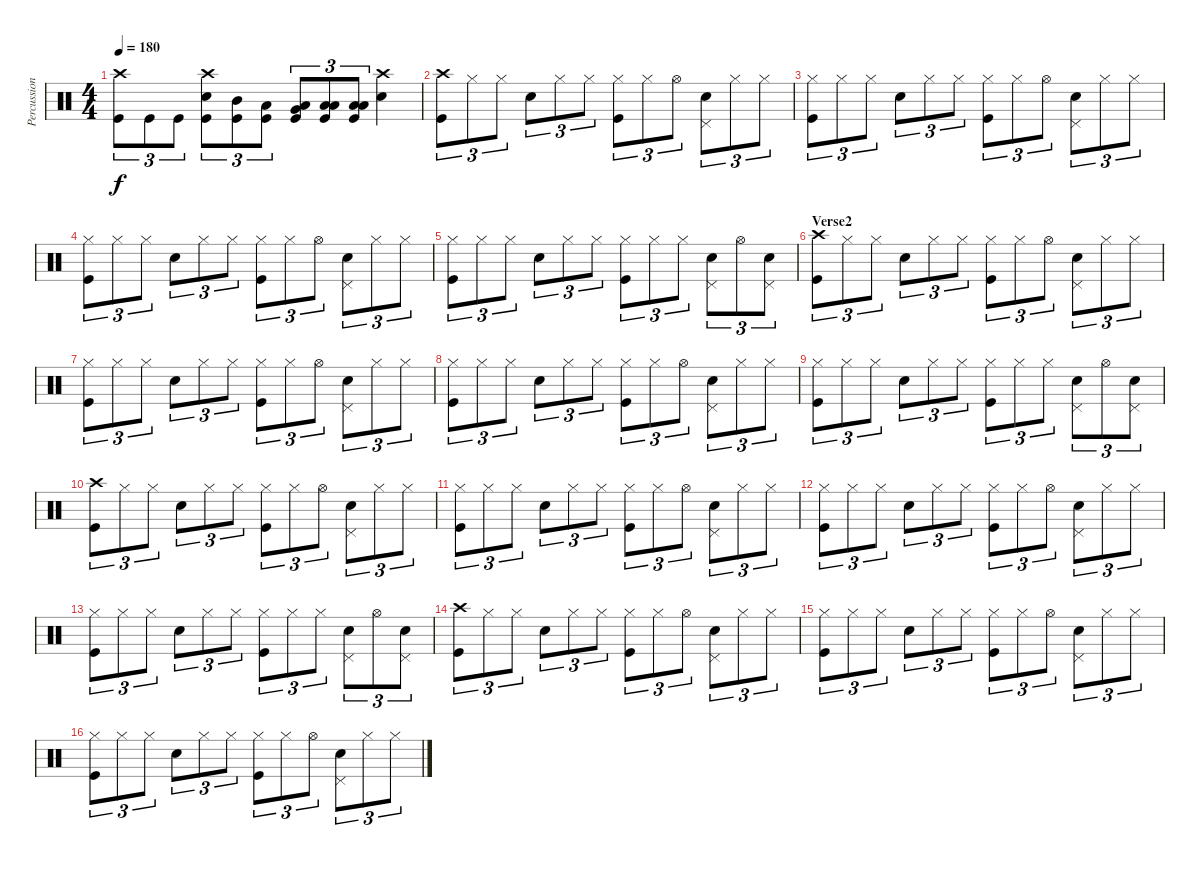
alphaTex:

\track ("Percussions" "Percussion") {instrument percussion}
\staff {score}
\articulation defaults
\ts (4 4)
\tempo 180
\clef neutral
\ks c
("Crash high (hit)" "Kick (hit)").8{tu (3 2) dy f} "Kick (hit)".8{tu (3 2)} "Kick (hit)".8{tu (3 2)} ("Crash high (hit)" "Electric Snare (hit)" "Kick (hit)").8{tu (3 2)} ("Mid Tom (hit)" "Kick (hit)").8{tu (3 2)} ("Low Tom (hit)" "Kick (hit)").8{tu (3 2)} ("Very Low Tom (hit)" "Low Floor Tom (hit)" "Kick (hit)").8{tu (3 2)} ("Low Floor Tom (hit)" "Low Floor Tom (hit)" "Kick (hit)").8{tu (3 2)} ("Low Floor Tom (hit)" "Low Floor Tom (hit)" "Kick (hit)").8{tu (3 2)} ("Crash high (hit)" "Electric Snare (hit)").4 |
("Crash high (hit)" "Kick (hit)").8{tu (3 2)} "Hi-Hat (closed)".8{tu (3 2)} "Hi-Hat (closed)".8{tu (3 2)} "Electric Snare (hit)".8{tu (3 2)} "Hi-Hat (closed)".8{tu (3 2)} "Hi-Hat (closed)".8{tu (3 2)} ("Hi-Hat (closed)" "Kick (hit)").8{tu (3 2)} "Hi-Hat (closed)".8{tu (3 2)} "Hi-Hat (open)".8{tu (3 2)} ("Pedal Hi-Hat (hit)" "Electric Snare (hit)").8{tu (3 2)} "Hi-Hat (closed)".8{tu (3 2)} "Hi-Hat (closed)".8{tu (3 2)} |
("Hi-Hat (closed)" "Kick (hit)").8{tu (3 2)} "Hi-Hat (closed)".8{tu (3 2)} "Hi-Hat (closed)".8{tu (3 2)} "Electric Snare (hit)".8{tu (3 2)} "Hi-Hat (closed)".8{tu (3 2)} "Hi-Hat (closed)".8{tu (3 2)} ("Hi-Hat (closed)" "Kick (hit)").8{tu (3 2)} "Hi-Hat (closed)".8{tu (3 2)} "Hi-Hat (open)".8{tu (3 2)} ("Pedal Hi-Hat (hit)" "Electric Snare (hit)").8{tu (3 2)} "Hi-Hat (closed)".8{tu (3 2)} "Hi-Hat (closed)".8{tu (3 2)} |
("Hi-Hat (closed)" "Kick (hit)").8{tu (3 2)} "Hi-Hat (closed)".8{tu (3 2)} "Hi-Hat (closed)".8{tu (3 2)} "Electric Snare (hit)".8{tu (3 2)} "Hi-Hat (closed)".8{tu (3 2)} "Hi-Hat (closed)".8{tu (3 2)} ("Hi-Hat (closed)" "Kick (hit)").8{tu (3 2)} "Hi-Hat (closed)".8{tu (3 2)} "Hi-Hat (open)".8{tu (3 2)} ("Pedal Hi-Hat (hit)" "Electric Snare (hit)").8{tu (3 2)} "Hi-Hat (closed)".8{tu (3 2)} "Hi-Hat (closed)".8{tu (3 2)} |
("Hi-Hat (closed)" "Kick (hit)").8{tu (3 2)} "Hi-Hat (closed)".8{tu (3 2)} "Hi-Hat (closed)".8{tu (3 2)} "Electric Snare (hit)".8{tu (3 2)} "Hi-Hat (closed)".8{tu (3 2)} "Hi-Hat (closed)".8{tu (3 2)} ("Hi-Hat (closed)" "Kick (hit)").8{tu (3 2)} "Hi-Hat (closed)".8{tu (3 2)} "Hi-Hat (closed)".8{tu (3 2)} ("Pedal Hi-Hat (hit)" "Electric Snare (hit)").8{tu (3 2)} "Hi-Hat (open)".8{tu (3 2)} ("Pedal Hi-Hat (hit)" "Electric Snare (hit)").8{tu (3 2)} |
\section ("" "Verse2")
("Crash high (hit)" "Kick (hit)").8{tu (3 2)} "Hi-Hat (closed)".8{tu (3 2)} "Hi-Hat (closed)".8{tu (3 2)} "Electric Snare (hit)".8{tu (3 2)} "Hi-Hat (closed)".8{tu (3 2)} "Hi-Hat (closed)".8{tu (3 2)} ("Hi-Hat (closed)" "Kick (hit)").8{tu (3 2)} "Hi-Hat (closed)".8{tu (3 2)} "Hi-Hat (open)".8{tu (3 2)} ("Pedal Hi-Hat (hit)" "Electric Snare (hit)").8{tu (3 2)} "Hi-Hat (closed)".8{tu (3 2)} "Hi-Hat (closed)".8{tu (3 2)} |
("Hi-Hat (closed)" "Kick (hit)").8{tu (3 2)} "Hi-Hat (closed)".8{tu (3 2)} "Hi-Hat (closed)".8{tu (3 2)} "Electric Snare (hit)".8{tu (3 2)} "Hi-Hat (closed)".8{tu (3 2)} "Hi-Hat (closed)".8{tu (3 2)} ("Hi-Hat (closed)" "Kick (hit)").8{tu (3 2)} "Hi-Hat (closed)".8{tu (3 2)} "Hi-Hat (open)".8{tu (3 2)} ("Pedal Hi-Hat (hit)" "Electric Snare (hit)").8{tu (3 2)} "Hi-Hat (closed)".8{tu (3 2)} "Hi-Hat (closed)".8{tu (3 2)} |
("Hi-Hat (closed)" "Kick (hit)").8{tu (3 2)} "Hi-Hat (closed)".8{tu (3 2)} "Hi-Hat (closed)".8{tu (3 2)} "Electric Snare (hit)".8{tu (3 2)} "Hi-Hat (closed)".8{tu (3 2)} "Hi-Hat (closed)".8{tu (3 2)} ("Hi-Hat (closed)" "Kick (hit)").8{tu (3 2)} "Hi-Hat (closed)".8{tu (3 2)} "Hi-Hat (open)".8{tu (3 2)} ("Pedal Hi-Hat (hit)" "Electric Snare (hit)").8{tu (3 2)} "Hi-Hat (closed)".8{tu (3 2)} "Hi-Hat (closed)".8{tu (3 2)} |
("Hi-Hat (closed)" "Kick (hit)").8{tu (3 2)} "Hi-Hat (closed)".8{tu (3 2)} "Hi-Hat (closed)".8{tu (3 2)} "Electric Snare (hit)".8{tu (3 2)} "Hi-Hat (closed)".8{tu (3 2)} "Hi-Hat (closed)".8{tu (3 2)} ("Hi-Hat (closed)" "Kick (hit)").8{tu (3 2)} "Hi-Hat (closed)".8{tu (3 2)} "Hi-Hat (closed)".8{tu (3 2)} ("Pedal Hi-Hat (hit)" "Electric Snare (hit)").8{tu (3 2)} "Hi-Hat (open)".8{tu (3 2)} ("Pedal Hi-Hat (hit)" "Electric Snare (hit)").8{tu (3 2)} |
("Crash high (hit)" "Kick (hit)").8{tu (3 2)} "Hi-Hat (closed)".8{tu (3 2)} "Hi-Hat (closed)".8{tu (3 2)} "Electric Snare (hit)".8{tu (3 2)} "Hi-Hat (closed)".8{tu (3 2)} "Hi-Hat (closed)".8{tu (3 2)} ("Hi-Hat (closed)" "Kick (hit)").8{tu (3 2)} "Hi-Hat (closed)".8{tu (3 2)} "Hi-Hat (open)".8{tu (3 2)} ("Pedal Hi-Hat (hit)" "Electric Snare (hit)").8{tu (3 2)} "Hi-Hat (closed)".8{tu (3 2)} "Hi-Hat (closed)".8{tu (3 2)} |
("Hi-Hat (closed)" "Kick (hit)").8{tu (3 2)} "Hi-Hat (closed)".8{tu (3 2)} "Hi-Hat (closed)".8{tu (3 2)} "Electric Snare (hit)".8{tu (3 2)} "Hi-Hat (closed)".8{tu (3 2)} "Hi-Hat (closed)".8{tu (3 2)} ("Hi-Hat (closed)" "Kick (hit)").8{tu (3 2)} "Hi-Hat (closed)".8{tu (3 2)} "Hi-Hat (open)".8{tu (3 2)} ("Pedal Hi-Hat (hit)" "Electric Snare (hit)").8{tu (3 2)} "Hi-Hat (closed)".8{tu (3 2)} "Hi-Hat (closed)".8{tu (3 2)} |
("Hi-Hat (closed)" "Kick (hit)").8{tu (3 2)} "Hi-Hat (closed)".8{tu (3 2)} "Hi-Hat (closed)".8{tu (3 2)} "Electric Snare (hit)".8{tu (3 2)} "Hi-Hat (closed)".8{tu (3 2)} "Hi-Hat (closed)".8{tu (3 2)} ("Hi-Hat (closed)" "Kick (hit)").8{tu (3 2)} "Hi-Hat (closed)".8{tu (3 2)} "Hi-Hat (open)".8{tu (3 2)} ("Pedal Hi-Hat (hit)" "Electric Snare (hit)").8{tu (3 2)} "Hi-Hat (closed)".8{tu (3 2)} "Hi-Hat (closed)".8{tu (3 2)} |
("Hi-Hat (closed)" "Kick (hit)").8{tu (3 2)} "Hi-Hat (closed)".8{tu (3 2)} "Hi-Hat (closed)".8{tu (3 2)} "Electric Snare (hit)".8{tu (3 2)} "Hi-Hat (closed)".8{tu (3 2)} "Hi-Hat (closed)".8{tu (3 2)} ("Hi-Hat (closed)" "Kick (hit)").8{tu (3 2)} "Hi-Hat (closed)".8{tu (3 2)} "Hi-Hat (closed)".8{tu (3 2)} ("Pedal Hi-Hat (hit)" "Electric Snare (hit)").8{tu (3 2)} "Hi-Hat (open)".8{tu (3 2)} ("Pedal Hi-Hat (hit)" "Electric Snare (hit)").8{tu (3 2)} |
("Crash high (hit)" "Kick (hit)").8{tu (3 2)} "Hi-Hat (closed)".8{tu (3 2)} "Hi-Hat (closed)".8{tu (3 2)} "Electric Snare (hit)".8{tu (3 2)} "Hi-Hat (closed)".8{tu (3 2)} "Hi-Hat (closed)".8{tu (3 2)} ("Hi-Hat (closed)" "Kick (hit)").8{tu (3 2)} "Hi-Hat (closed)".8{tu (3 2)} "Hi-Hat (open)".8{tu (3 2)} ("Pedal Hi-Hat (hit)" "Electric Snare (hit)").8{tu (3 2)} "Hi-Hat (closed)".8{tu (3 2)} "Hi-Hat (closed)".8{tu (3 2)} |
("Hi-Hat (closed)" "Kick (hit)").8{tu (3 2)} "Hi-Hat (closed)".8{tu (3 2)} "Hi-Hat (closed)".8{tu (3 2)} "Electric Snare (hit)".8{tu (3 2)} "Hi-Hat (closed)".8{tu (3 2)} "Hi-Hat (closed)".8{tu (3 2)} ("Hi-Hat (closed)" "Kick (hit)").8{tu (3 2)} "Hi-Hat (closed)".8{tu (3 2)} "Hi-Hat (open)".8{tu (3 2)} ("Pedal Hi-Hat (hit)" "Electric Snare (hit)").8{tu (3 2)} "Hi-Hat (closed)".8{tu (3 2)} "Hi-Hat (closed)".8{tu (3 2)} |
("Hi-Hat (closed)" "Kick (hit)").8{tu (3 2)} "Hi-Hat (closed)".8{tu (3 2)} "Hi-Hat (closed)".8{tu (3 2)} "Electric Snare (hit)".8{tu (3 2)} "Hi-Hat (closed)".8{tu (3 2)} "Hi-Hat (closed)".8{tu (3 2)} ("Hi-Hat (closed)" "Kick (hit)").8{tu (3 2)} "Hi-Hat (closed)".8{tu (3 2)} "Hi-Hat (open)".8{tu (3 2)} ("Pedal Hi-Hat (hit)" "Electric Snare (hit)").8{tu (3 2)} "Hi-Hat (closed)".8{tu (3 2)} "Hi-Hat (closed)".8{tu (3 2)}
